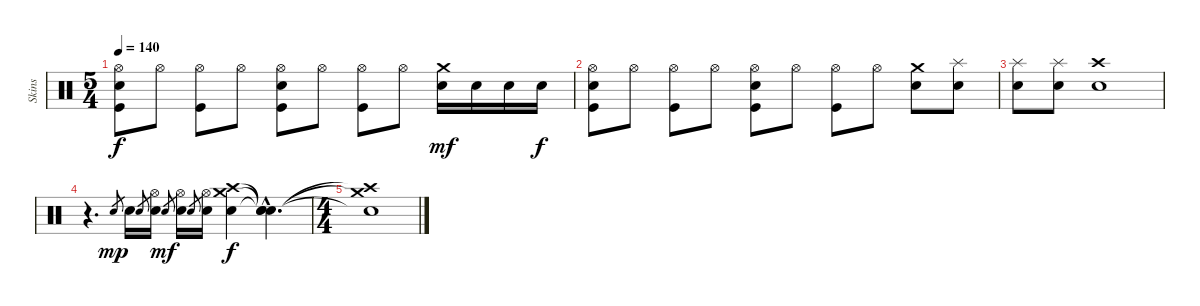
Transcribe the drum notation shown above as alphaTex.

\track ("Skins" "Skins") {instrument percussion}
\staff {score}
\articulation defaults
\ts (5 4)
\tempo 140
\clef neutral
\ks c
("Hi-Hat (open)" "Snare (hit) 2" "Kick (hit)").8{dy f} "Hi-Hat (open)".8 ("Hi-Hat (open)" "Kick (hit)").8 "Hi-Hat (open)".8 ("Hi-Hat (open)" "Snare (hit) 2" "Kick (hit)").8 "Hi-Hat (open)".8 ("Hi-Hat (open)" "Kick (hit)").8 "Hi-Hat (open)".8 ("Crash medium (hit)" "Electric Snare (hit)").16{dy mf} "Electric Snare (hit)".16 "Electric Snare (hit)".16 "Electric Snare (hit)".16{dy f} |
("Hi-Hat (open)" "Snare (hit) 2" "Kick (hit)").8 "Hi-Hat (open)".8 ("Hi-Hat (open)" "Kick (hit)").8 "Hi-Hat (open)".8 ("Hi-Hat (open)" "Snare (hit) 2" "Kick (hit)").8 "Hi-Hat (open)".8 ("Hi-Hat (open)" "Kick (hit)").8 "Hi-Hat (open)".8 ("Crash medium (hit)" "Electric Snare (hit)").8 ("Splash (hit)" "Electric Snare (hit)").8 |
("Splash (hit)" "Snare (hit) 2").8 ("Splash (hit)" "Snare (hit) 2").8 ("Crash high (hit)" "Electric Snare (hit)").1 |
r.4{d} "Electric Snare (hit)".8{gr dy mp} "Snare (hit) 2".16 "Electric Snare (hit)".8{gr} ("Hi-Hat (open)" "Snare (hit) 2").16 "Electric Snare (hit)".8{gr dy mf} ("Hi-Hat (open)" "Snare (hit) 2").16 "Electric Snare (hit)".8{gr} ("Hi-Hat (open)" "Snare (hit) 2").16 ("Crash medium (hit)" "Crash high (hit)" "Snare (hit) 2").4{dy f} ("Snare (hit)"{hac t} "Snare (hit)"{hac t} "Snare (hit)"{hac t}).4{d} |
\ts (4 4)
("Crash medium (hit)"{t} "Crash high (hit)"{t} "Snare (hit) 2"{t}).1
